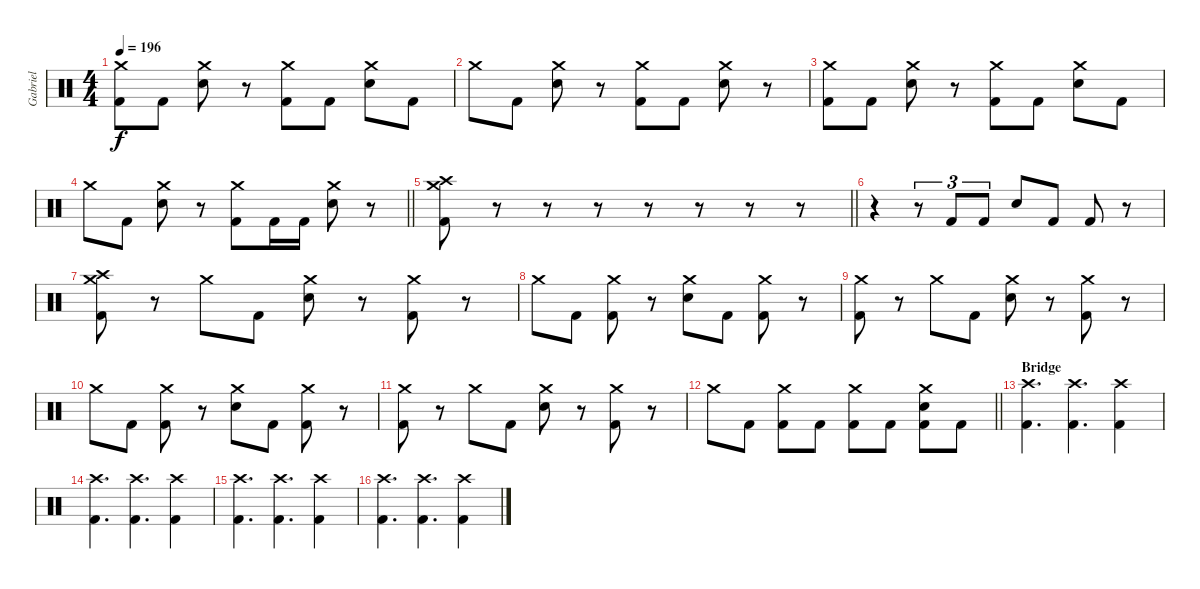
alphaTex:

\track ("Gabriel" "Gabriel") {instrument percussion}
\staff {score}
\articulation defaults
\ts (4 4)
\tempo 196
\clef neutral
\ks c
("Crash medium (hit)" "Kick (hit) 2").8{dy f} "Kick (hit) 2".8 ("Crash medium (hit)" "Electric Snare (hit)").8 r.8 ("Crash medium (hit)" "Kick (hit) 2").8 "Kick (hit) 2".8 ("Crash medium (hit)" "Electric Snare (hit)").8 "Kick (hit) 2".8 |
"Crash medium (hit)".8 "Kick (hit) 2".8 ("Crash medium (hit)" "Electric Snare (hit)").8 r.8 ("Crash medium (hit)" "Kick (hit) 2").8 "Kick (hit) 2".8 ("Crash medium (hit)" "Electric Snare (hit)").8 r.8 |
("Crash medium (hit)" "Kick (hit) 2").8 "Kick (hit) 2".8 ("Crash medium (hit)" "Electric Snare (hit)").8 r.8 ("Crash medium (hit)" "Kick (hit) 2").8 "Kick (hit) 2".8 ("Crash medium (hit)" "Electric Snare (hit)").8 "Kick (hit) 2".8 |
\barLineRight lightlight "Crash medium (hit)".8 "Kick (hit) 2".8
("Crash medium (hit)" "Electric Snare (hit)").8 r.8 ("Crash medium (hit)" "Kick (hit) 2").8 "Kick (hit) 2".16 "Kick (hit) 2".16 ("Crash medium (hit)" "Electric Snare (hit)").8 r.8 |
\barLineRight lightlight
("Crash medium (hit)" "Crash high (hit)" "Kick (hit) 2").8 r.8 r.8 r.8 r.8 r.8 r.8 r.8 |
r.4 r.8{tu (3 2)} "Kick (hit) 2".8{tu (3 2)} "Kick (hit) 2".8{tu (3 2)} "Electric Snare (hit)".8 "Kick (hit) 2".8 "Kick (hit) 2".8 r.8 |
("Crash medium (hit)" "Crash high (hit)" "Kick (hit) 2").8 r.8 "Crash medium (hit)".8 "Kick (hit) 2".8 ("Crash medium (hit)" "Electric Snare (hit)").8 r.8 ("Crash medium (hit)" "Kick (hit) 2").8 r.8 |
"Crash medium (hit)".8 "Kick (hit) 2".8 ("Crash medium (hit)" "Kick (hit) 2").8 r.8 ("Crash medium (hit)" "Electric Snare (hit)").8 "Kick (hit) 2".8 ("Crash medium (hit)" "Kick (hit) 2").8 r.8 |
("Crash medium (hit)" "Kick (hit) 2").8 r.8 "Crash medium (hit)".8 "Kick (hit) 2".8 ("Crash medium (hit)" "Electric Snare (hit)").8 r.8 ("Crash medium (hit)" "Kick (hit) 2").8 r.8 |
"Crash medium (hit)".8 "Kick (hit) 2".8 ("Crash medium (hit)" "Kick (hit) 2").8 r.8 ("Crash medium (hit)" "Electric Snare (hit)").8 "Kick (hit) 2".8 ("Crash medium (hit)" "Kick (hit) 2").8 r.8 |
("Crash medium (hit)" "Kick (hit) 2").8 r.8 "Crash medium (hit)".8 "Kick (hit) 2".8 ("Crash medium (hit)" "Electric Snare (hit)").8 r.8 ("Crash medium (hit)" "Kick (hit) 2").8 r.8 |
\barLineRight lightlight "Crash medium (hit)".8 "Kick (hit) 2".8
("Crash medium (hit)" "Kick (hit) 2").8 "Kick (hit) 2".8 ("Crash medium (hit)" "Kick (hit) 2").8 "Kick (hit) 2".8 ("Crash medium (hit)" "Electric Snare (hit)" "Kick (hit) 2").8 "Kick (hit) 2".8 |
\section ("" "Bridge")
("Crash high (hit)" "Kick (hit) 2").4{d} ("Crash high (hit)" "Kick (hit) 2").4{d} ("Crash high (hit)" "Kick (hit) 2").4 |
("Crash high (hit)" "Kick (hit) 2").4{d} ("Crash high (hit)" "Kick (hit) 2").4{d} ("Crash high (hit)" "Kick (hit) 2").4 |
("Crash high (hit)" "Kick (hit) 2").4{d} ("Crash high (hit)" "Kick (hit) 2").4{d} ("Crash high (hit)" "Kick (hit) 2").4 |
("Crash high (hit)" "Kick (hit) 2").4{d} ("Crash high (hit)" "Kick (hit) 2").4{d} ("Crash high (hit)" "Kick (hit) 2").4
